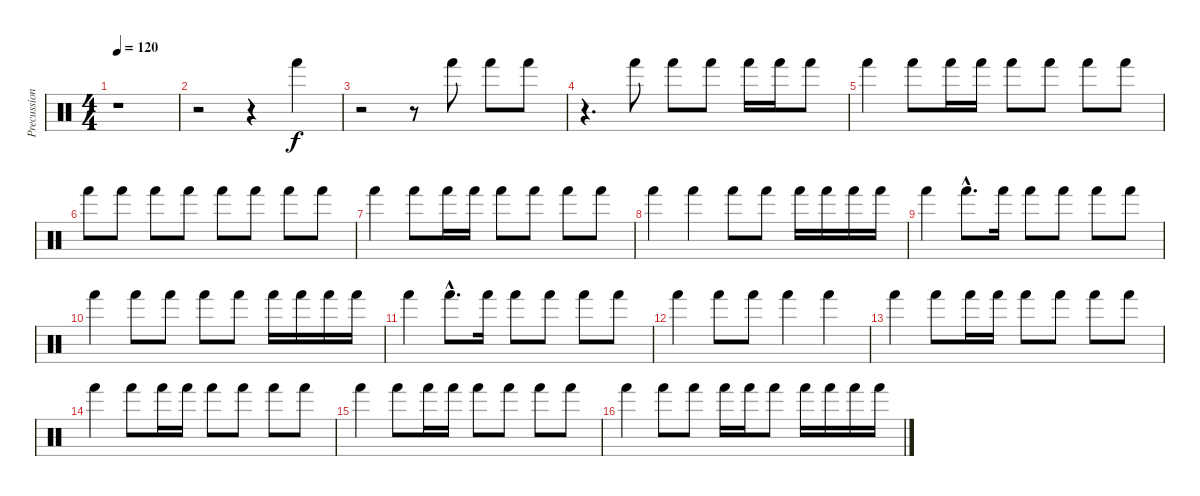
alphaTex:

\track ("Precussion" "Precussion") {instrument percussion}
\staff {score}
\articulation defaults
\ts (4 4)
\tempo 120
\clef neutral
\ks c
r.1{dy f} |
r.2 r.4 "Hand (hit)".4 |
r.2 r.8 "Hand (hit)".8 "Hand (hit)".8 "Hand (hit)".8 |
r.4{d} "Hand (hit)".8 "Hand (hit)".8 "Hand (hit)".8 "Hand (hit)".16 "Hand (hit)".16 "Hand (hit)".8 |
"Hand (hit)".4 "Hand (hit)".8 "Hand (hit)".16 "Hand (hit)".16 "Hand (hit)".8 "Hand (hit)".8 "Hand (hit)".8 "Hand (hit)".8 |
"Hand (hit)".8 "Hand (hit)".8 "Hand (hit)".8 "Hand (hit)".8 "Hand (hit)".8 "Hand (hit)".8 "Hand (hit)".8 "Hand (hit)".8 |
"Hand (hit)".4 "Hand (hit)".8 "Hand (hit)".16 "Hand (hit)".16 "Hand (hit)".8 "Hand (hit)".8 "Hand (hit)".8 "Hand (hit)".8 |
"Hand (hit)".4 "Hand (hit)".4 "Hand (hit)".8 "Hand (hit)".8 "Hand (hit)".16 "Hand (hit)".16 "Hand (hit)".16 "Hand (hit)".16 |
"Hand (hit)".4 "Hand (hit)"{hac}.8{d} "Hand (hit)".16 "Hand (hit)".8 "Hand (hit)".8 "Hand (hit)".8 "Hand (hit)".8 |
"Hand (hit)".4 "Hand (hit)".8 "Hand (hit)".8 "Hand (hit)".8 "Hand (hit)".8 "Hand (hit)".16 "Hand (hit)".16 "Hand (hit)".16 "Hand (hit)".16 |
"Hand (hit)".4 "Hand (hit)"{hac}.8{d} "Hand (hit)".16 "Hand (hit)".8 "Hand (hit)".8 "Hand (hit)".8 "Hand (hit)".8 |
"Hand (hit)".4 "Hand (hit)".8 "Hand (hit)".8 "Hand (hit)".4 "Hand (hit)".4 |
"Hand (hit)".4 "Hand (hit)".8 "Hand (hit)".16 "Hand (hit)".16 "Hand (hit)".8 "Hand (hit)".8 "Hand (hit)".8 "Hand (hit)".8 |
"Hand (hit)".4 "Hand (hit)".8 "Hand (hit)".16 "Hand (hit)".16 "Hand (hit)".8 "Hand (hit)".8 "Hand (hit)".8 "Hand (hit)".8 |
"Hand (hit)".4 "Hand (hit)".8 "Hand (hit)".16 "Hand (hit)".16 "Hand (hit)".8 "Hand (hit)".8 "Hand (hit)".8 "Hand (hit)".8 |
"Hand (hit)".4 "Hand (hit)".8 "Hand (hit)".8 "Hand (hit)".16 "Hand (hit)".16 "Hand (hit)".8 "Hand (hit)".16 "Hand (hit)".16 "Hand (hit)".16 "Hand (hit)".16
